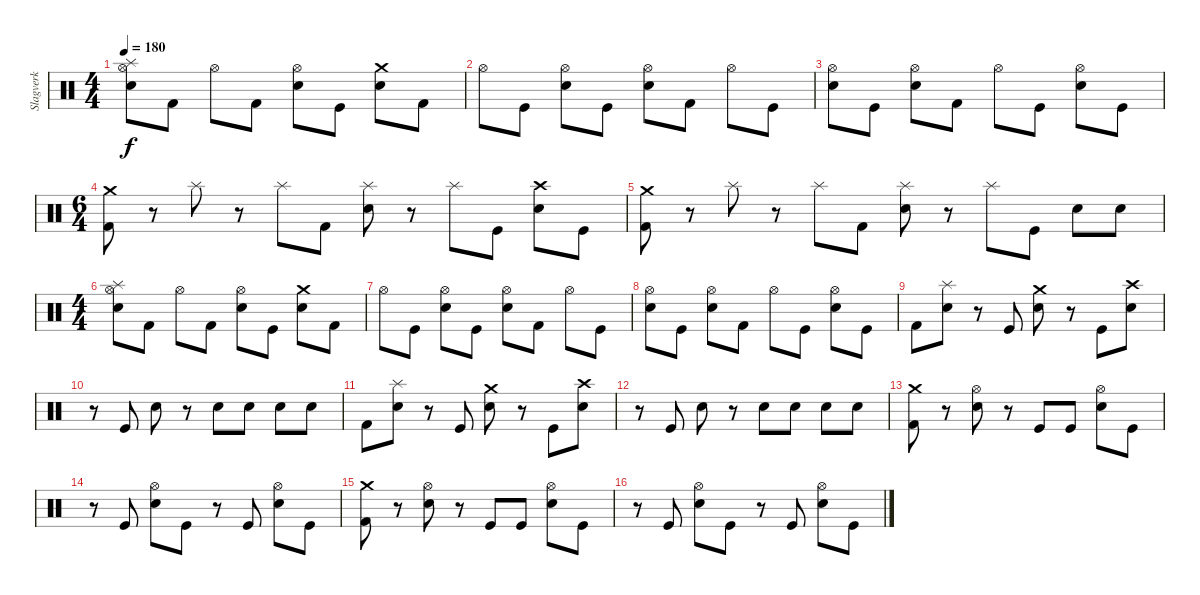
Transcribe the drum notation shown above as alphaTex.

\track ("Slagverk" "Slagverk") {instrument percussion}
\staff {score}
\articulation defaults
\ts (4 4)
\tempo 180
\clef neutral
\ks c
("Splash (hit)" "Hi-Hat (open)" "Electric Snare (hit)").8{dy f} "Kick (hit) 2".8 "Hi-Hat (open)".8 "Kick (hit) 2".8 ("Hi-Hat (open)" "Electric Snare (hit)").8 "Kick (hit)".8 ("Crash medium (hit)" "Electric Snare (hit)").8 "Kick (hit) 2".8 |
"Hi-Hat (open)".8 "Kick (hit)".8 ("Hi-Hat (open)" "Electric Snare (hit)").8 "Kick (hit)".8 ("Hi-Hat (open)" "Electric Snare (hit)").8 "Kick (hit) 2".8 "Hi-Hat (open)".8 "Kick (hit)".8 |
("Hi-Hat (open)" "Electric Snare (hit)").8 "Kick (hit)".8 ("Hi-Hat (open)" "Electric Snare (hit)").8 "Kick (hit) 2".8 "Hi-Hat (open)".8 "Kick (hit)".8 ("Hi-Hat (open)" "Electric Snare (hit)").8 "Kick (hit)".8 |
\ts (6 4)
("Crash medium (hit)" "Kick (hit) 2").8 r.8 "Splash (hit)".8 r.8 "Splash (hit)".8 "Kick (hit) 2".8 ("Splash (hit)" "Electric Snare (hit)").8 r.8 "Splash (hit)".8 "Kick (hit)".8 ("Crash high (hit)" "Electric Snare (hit)").8 "Kick (hit)".8 |
("Crash medium (hit)" "Kick (hit) 2").8 r.8 "Splash (hit)".8 r.8 "Splash (hit)".8 "Kick (hit) 2".8 ("Splash (hit)" "Electric Snare (hit)").8 r.8 "Splash (hit)".8 "Kick (hit)".8 "Electric Snare (hit)".8 "Electric Snare (hit)".8 |
\ts (4 4)
("Splash (hit)" "Hi-Hat (open)" "Electric Snare (hit)").8 "Kick (hit) 2".8 "Hi-Hat (open)".8 "Kick (hit) 2".8 ("Hi-Hat (open)" "Electric Snare (hit)").8 "Kick (hit)".8 ("Crash medium (hit)" "Electric Snare (hit)").8 "Kick (hit) 2".8 |
"Hi-Hat (open)".8 "Kick (hit)".8 ("Hi-Hat (open)" "Electric Snare (hit)").8 "Kick (hit)".8 ("Hi-Hat (open)" "Electric Snare (hit)").8 "Kick (hit) 2".8 "Hi-Hat (open)".8 "Kick (hit)".8 |
("Hi-Hat (open)" "Electric Snare (hit)").8 "Kick (hit)".8 ("Hi-Hat (open)" "Electric Snare (hit)").8 "Kick (hit) 2".8 "Hi-Hat (open)".8 "Kick (hit)".8 ("Hi-Hat (open)" "Electric Snare (hit)").8 "Kick (hit)".8 |
"Kick (hit) 2".8 ("Splash (hit)" "Electric Snare (hit)").8 r.8 "Kick (hit)".8 ("Crash medium (hit)" "Electric Snare (hit)").8 r.8 "Kick (hit)".8 ("Crash high (hit)" "Electric Snare (hit)").8 |
r.8 "Kick (hit)".8 "Electric Snare (hit)".8 r.8 "Electric Snare (hit)".8 "Electric Snare (hit)".8 "Electric Snare (hit)".8 "Electric Snare (hit)".8 |
"Kick (hit) 2".8 ("Splash (hit)" "Electric Snare (hit)").8 r.8 "Kick (hit)".8 ("Crash medium (hit)" "Electric Snare (hit)").8 r.8 "Kick (hit)".8 ("Crash high (hit)" "Electric Snare (hit)").8 |
r.8 "Kick (hit)".8 "Electric Snare (hit)".8 r.8 "Electric Snare (hit)".8 "Electric Snare (hit)".8 "Electric Snare (hit)".8 "Electric Snare (hit)".8 |
("Crash medium (hit)" "Kick (hit) 2").8 r.8 ("Hi-Hat (open)" "Electric Snare (hit)").8 r.8 "Kick (hit)".8 "Kick (hit)".8 ("Hi-Hat (open)" "Electric Snare (hit)").8 "Kick (hit)".8 |
r.8 "Kick (hit)".8 ("Hi-Hat (open)" "Electric Snare (hit)").8 "Kick (hit)".8 r.8 "Kick (hit)".8 ("Hi-Hat (open)" "Electric Snare (hit)").8 "Kick (hit)".8 |
("Crash medium (hit)" "Kick (hit) 2").8 r.8 ("Hi-Hat (open)" "Electric Snare (hit)").8 r.8 "Kick (hit)".8 "Kick (hit)".8 ("Hi-Hat (open)" "Electric Snare (hit)").8 "Kick (hit)".8 |
r.8 "Kick (hit)".8 ("Hi-Hat (open)" "Electric Snare (hit)").8 "Kick (hit)".8 r.8 "Kick (hit)".8 ("Hi-Hat (open)" "Electric Snare (hit)").8 "Kick (hit)".8
